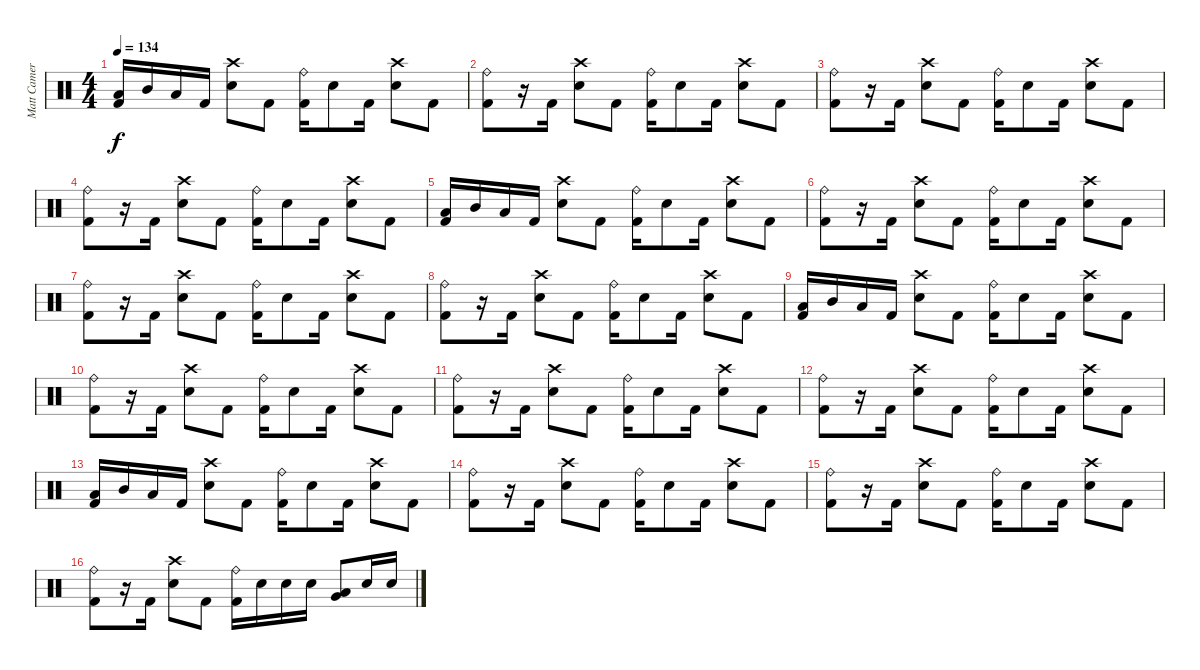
\track ("Matt Cameron" "Matt Camer") {instrument percussion}
\staff {score}
\articulation defaults
\ts (4 4)
\tempo 134
\clef neutral
\ks c
("Low Tom (hit)" "Kick (hit) 2").16{dy f} "Mid Tom (hit)".16 "Low Tom (hit)".16 "Kick (hit) 2".16 ("Crash high (hit)" "Electric Snare (hit)").8 "Kick (hit) 2".8 ("Ride (bell)" "Kick (hit) 2").16 "Electric Snare (hit)".8 "Kick (hit) 2".16 ("Crash high (hit)" "Electric Snare (hit)").8 "Kick (hit) 2".8 |
("Ride (bell)" "Kick (hit) 2").8 r.16 "Kick (hit) 2".16 ("Crash high (hit)" "Electric Snare (hit)").8 "Kick (hit) 2".8 ("Ride (bell)" "Kick (hit) 2").16 "Electric Snare (hit)".8 "Kick (hit) 2".16 ("Crash high (hit)" "Electric Snare (hit)").8 "Kick (hit) 2".8 |
("Ride (bell)" "Kick (hit) 2").8 r.16 "Kick (hit) 2".16 ("Crash high (hit)" "Electric Snare (hit)").8 "Kick (hit) 2".8 ("Ride (bell)" "Kick (hit) 2").16 "Electric Snare (hit)".8 "Kick (hit) 2".16 ("Crash high (hit)" "Electric Snare (hit)").8 "Kick (hit) 2".8 |
("Ride (bell)" "Kick (hit) 2").8 r.16 "Kick (hit) 2".16 ("Crash high (hit)" "Electric Snare (hit)").8 "Kick (hit) 2".8 ("Ride (bell)" "Kick (hit) 2").16 "Electric Snare (hit)".8 "Kick (hit) 2".16 ("Crash high (hit)" "Electric Snare (hit)").8 "Kick (hit) 2".8 |
("Low Tom (hit)" "Kick (hit) 2").16 "Mid Tom (hit)".16 "Low Tom (hit)".16 "Kick (hit) 2".16 ("Crash high (hit)" "Electric Snare (hit)").8 "Kick (hit) 2".8 ("Ride (bell)" "Kick (hit) 2").16 "Electric Snare (hit)".8 "Kick (hit) 2".16 ("Crash high (hit)" "Electric Snare (hit)").8 "Kick (hit) 2".8 |
("Ride (bell)" "Kick (hit) 2").8 r.16 "Kick (hit) 2".16 ("Crash high (hit)" "Electric Snare (hit)").8 "Kick (hit) 2".8 ("Ride (bell)" "Kick (hit) 2").16 "Electric Snare (hit)".8 "Kick (hit) 2".16 ("Crash high (hit)" "Electric Snare (hit)").8 "Kick (hit) 2".8 |
("Ride (bell)" "Kick (hit) 2").8 r.16 "Kick (hit) 2".16 ("Crash high (hit)" "Electric Snare (hit)").8 "Kick (hit) 2".8 ("Ride (bell)" "Kick (hit) 2").16 "Electric Snare (hit)".8 "Kick (hit) 2".16 ("Crash high (hit)" "Electric Snare (hit)").8 "Kick (hit) 2".8 |
("Ride (bell)" "Kick (hit) 2").8 r.16 "Kick (hit) 2".16 ("Crash high (hit)" "Electric Snare (hit)").8 "Kick (hit) 2".8 ("Ride (bell)" "Kick (hit) 2").16 "Electric Snare (hit)".8 "Kick (hit) 2".16 ("Crash high (hit)" "Electric Snare (hit)").8 "Kick (hit) 2".8 |
("Low Tom (hit)" "Kick (hit) 2").16 "Mid Tom (hit)".16 "Low Tom (hit)".16 "Kick (hit) 2".16 ("Crash high (hit)" "Electric Snare (hit)").8 "Kick (hit) 2".8 ("Ride (bell)" "Kick (hit) 2").16 "Electric Snare (hit)".8 "Kick (hit) 2".16 ("Crash high (hit)" "Electric Snare (hit)").8 "Kick (hit) 2".8 |
("Ride (bell)" "Kick (hit) 2").8 r.16 "Kick (hit) 2".16 ("Crash high (hit)" "Electric Snare (hit)").8 "Kick (hit) 2".8 ("Ride (bell)" "Kick (hit) 2").16 "Electric Snare (hit)".8 "Kick (hit) 2".16 ("Crash high (hit)" "Electric Snare (hit)").8 "Kick (hit) 2".8 |
("Ride (bell)" "Kick (hit) 2").8 r.16 "Kick (hit) 2".16 ("Crash high (hit)" "Electric Snare (hit)").8 "Kick (hit) 2".8 ("Ride (bell)" "Kick (hit) 2").16 "Electric Snare (hit)".8 "Kick (hit) 2".16 ("Crash high (hit)" "Electric Snare (hit)").8 "Kick (hit) 2".8 |
("Ride (bell)" "Kick (hit) 2").8 r.16 "Kick (hit) 2".16 ("Crash high (hit)" "Electric Snare (hit)").8 "Kick (hit) 2".8 ("Ride (bell)" "Kick (hit) 2").16 "Electric Snare (hit)".8 "Kick (hit) 2".16 ("Crash high (hit)" "Electric Snare (hit)").8 "Kick (hit) 2".8 |
("Low Tom (hit)" "Kick (hit) 2").16 "Mid Tom (hit)".16 "Low Tom (hit)".16 "Kick (hit) 2".16 ("Crash high (hit)" "Electric Snare (hit)").8 "Kick (hit) 2".8 ("Ride (bell)" "Kick (hit) 2").16 "Electric Snare (hit)".8 "Kick (hit) 2".16 ("Crash high (hit)" "Electric Snare (hit)").8 "Kick (hit) 2".8 |
("Ride (bell)" "Kick (hit) 2").8 r.16 "Kick (hit) 2".16 ("Crash high (hit)" "Electric Snare (hit)").8 "Kick (hit) 2".8 ("Ride (bell)" "Kick (hit) 2").16 "Electric Snare (hit)".8 "Kick (hit) 2".16 ("Crash high (hit)" "Electric Snare (hit)").8 "Kick (hit) 2".8 |
("Ride (bell)" "Kick (hit) 2").8 r.16 "Kick (hit) 2".16 ("Crash high (hit)" "Electric Snare (hit)").8 "Kick (hit) 2".8 ("Ride (bell)" "Kick (hit) 2").16 "Electric Snare (hit)".8 "Kick (hit) 2".16 ("Crash high (hit)" "Electric Snare (hit)").8 "Kick (hit) 2".8 |
("Ride (bell)" "Kick (hit) 2").8 r.16 "Kick (hit) 2".16 ("Crash high (hit)" "Electric Snare (hit)").8 "Kick (hit) 2".8 ("Ride (bell)" "Kick (hit) 2").16 "Electric Snare (hit)".16 "Electric Snare (hit)".16 "Electric Snare (hit)".16 ("Very Low Tom (hit)" "Low Tom (hit)").8 "Electric Snare (hit)".16 "Electric Snare (hit)".16
